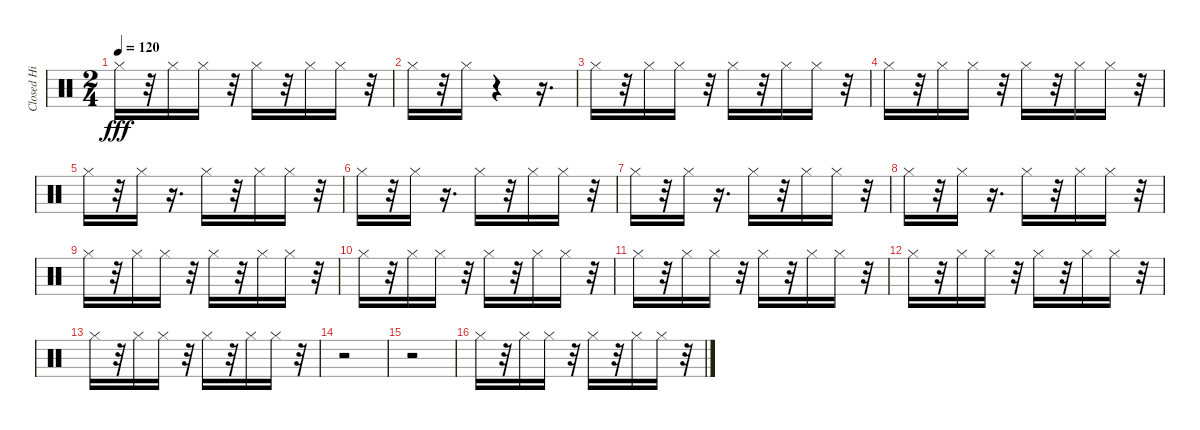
\track ("Closed Hi Hat (1) (1) (1) (1)" "Closed Hi ") {instrument percussion}
\staff {score}
\articulation defaults
\ts (2 4)
\tempo 120
\clef neutral
\ks c "Hi-Hat (closed)".16{dy fff}
r.32 "Hi-Hat (closed)".16 "Hi-Hat (closed)".16 r.32 "Hi-Hat (closed)".16 r.32 "Hi-Hat (closed)".16 "Hi-Hat (closed)".16 r.32 |
"Hi-Hat (closed)".16 r.32 "Hi-Hat (closed)".16 r.4 r.16{d} |
"Hi-Hat (closed)".16 r.32 "Hi-Hat (closed)".16 "Hi-Hat (closed)".16 r.32 "Hi-Hat (closed)".16 r.32 "Hi-Hat (closed)".16 "Hi-Hat (closed)".16 r.32 |
"Hi-Hat (closed)".16 r.32 "Hi-Hat (closed)".16 "Hi-Hat (closed)".16 r.32 "Hi-Hat (closed)".16 r.32 "Hi-Hat (closed)".16 "Hi-Hat (closed)".16 r.32 |
"Hi-Hat (closed)".16 r.32 "Hi-Hat (closed)".16 r.16{d} "Hi-Hat (closed)".16 r.32 "Hi-Hat (closed)".16 "Hi-Hat (closed)".16 r.32 |
"Hi-Hat (closed)".16 r.32 "Hi-Hat (closed)".16 r.16{d} "Hi-Hat (closed)".16 r.32 "Hi-Hat (closed)".16 "Hi-Hat (closed)".16 r.32 |
"Hi-Hat (closed)".16 r.32 "Hi-Hat (closed)".16 r.16{d} "Hi-Hat (closed)".16 r.32 "Hi-Hat (closed)".16 "Hi-Hat (closed)".16 r.32 |
"Hi-Hat (closed)".16 r.32 "Hi-Hat (closed)".16 r.16{d} "Hi-Hat (closed)".16 r.32 "Hi-Hat (closed)".16 "Hi-Hat (closed)".16 r.32 |
"Hi-Hat (closed)".16 r.32 "Hi-Hat (closed)".16 "Hi-Hat (closed)".16 r.32 "Hi-Hat (closed)".16 r.32 "Hi-Hat (closed)".16 "Hi-Hat (closed)".16 r.32 |
"Hi-Hat (closed)".16 r.32 "Hi-Hat (closed)".16 "Hi-Hat (closed)".16 r.32 "Hi-Hat (closed)".16 r.32 "Hi-Hat (closed)".16 "Hi-Hat (closed)".16 r.32 |
"Hi-Hat (closed)".16 r.32 "Hi-Hat (closed)".16 "Hi-Hat (closed)".16 r.32 "Hi-Hat (closed)".16 r.32 "Hi-Hat (closed)".16 "Hi-Hat (closed)".16 r.32 |
"Hi-Hat (closed)".16 r.32 "Hi-Hat (closed)".16 "Hi-Hat (closed)".16 r.32 "Hi-Hat (closed)".16 r.32 "Hi-Hat (closed)".16 "Hi-Hat (closed)".16 r.32 |
"Hi-Hat (closed)".16 r.32 "Hi-Hat (closed)".16 "Hi-Hat (closed)".16 r.32 "Hi-Hat (closed)".16 r.32 "Hi-Hat (closed)".16 "Hi-Hat (closed)".16 r.32 |
r.2 |
r.2 |
"Hi-Hat (closed)".16 r.32 "Hi-Hat (closed)".16 "Hi-Hat (closed)".16 r.32 "Hi-Hat (closed)".16 r.32 "Hi-Hat (closed)".16 "Hi-Hat (closed)".16 r.32
